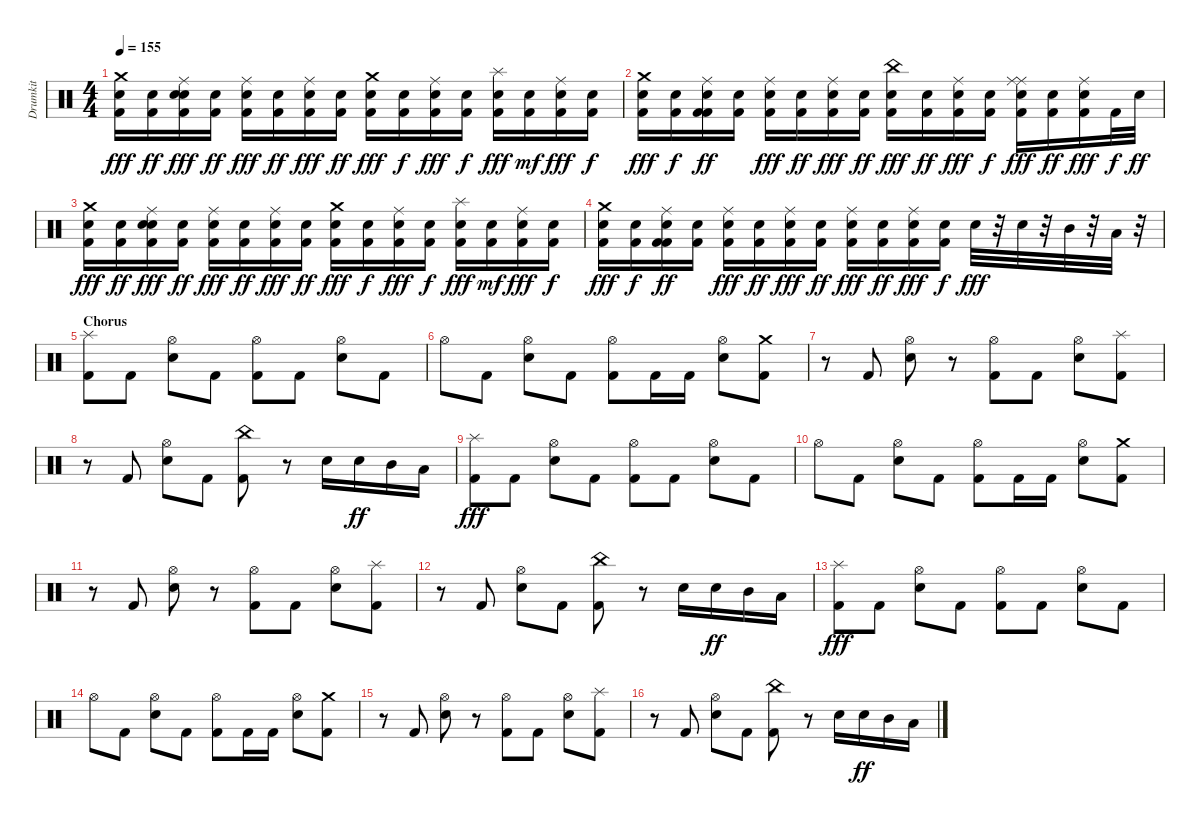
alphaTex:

\track ("Drumkit" "Drumkit") {instrument percussion}
\staff {score}
\articulation defaults
\ts (4 4)
\tempo 155
\clef neutral
\ks c
("Kick (hit) 2" "Snare (hit) 2" "Crash medium (hit)").16{dy fff} ("Kick (hit) 2" "Snare (hit) 2").16{dy ff} ("Kick (hit) 2" "Snare (hit) 2" "Snare (hit) 2" "Ride (middle)").16{dy fff} ("Kick (hit) 2" "Snare (hit) 2").16{dy ff} ("Kick (hit) 2" "Snare (hit) 2" "Ride (middle)").16{dy fff} ("Kick (hit) 2" "Snare (hit) 2").16{dy ff} ("Kick (hit) 2" "Snare (hit) 2" "Ride (middle)").16{dy fff} ("Kick (hit) 2" "Snare (hit) 2").16{dy ff} ("Kick (hit) 2" "Snare (hit) 2" "Crash medium (hit)").16{dy fff} ("Kick (hit) 2" "Snare (hit) 2").16{dy f} ("Kick (hit) 2" "Snare (hit) 2" "Ride (middle)").16{dy fff} ("Kick (hit) 2" "Snare (hit) 2").16{dy f} ("Kick (hit) 2" "Snare (hit) 2" "Splash (hit)").16{dy fff} ("Kick (hit) 2" "Snare (hit) 2").16{dy mf} ("Kick (hit) 2" "Snare (hit) 2" "Ride (middle)").16{dy fff} ("Kick (hit) 2" "Snare (hit) 2").16{dy f} |
("Kick (hit) 2" "Snare (hit) 2" "Crash medium (hit)").16{dy fff} ("Kick (hit) 2" "Snare (hit) 2").16{dy f} ("Kick (hit) 2" "Kick (hit) 2" "Snare (hit) 2" "Ride (middle)").16{dy ff} ("Kick (hit) 2" "Snare (hit) 2").16 ("Kick (hit) 2" "Snare (hit) 2" "Ride (middle)").16{dy fff} ("Kick (hit) 2" "Snare (hit) 2").16{dy ff} ("Kick (hit) 2" "Snare (hit) 2" "Ride (middle)").16{dy fff} ("Kick (hit) 2" "Snare (hit) 2").16{dy ff} ("Kick (hit) 2" "Snare (hit) 2" "China (hit)").16{dy fff} ("Kick (hit) 2" "Snare (hit) 2").16{dy ff} ("Kick (hit) 2" "Snare (hit) 2" "Ride (middle)").16{dy fff} ("Kick (hit) 2" "Snare (hit) 2").16{dy f} ("Kick (hit) 2" "Snare (hit) 2" "Ride (middle)" "Ride (middle)").16{dy fff} ("Kick (hit) 2" "Snare (hit) 2").16{dy ff} ("Kick (hit) 2" "Snare (hit) 2" "Ride (middle)").16{dy fff} "Kick (hit) 2".32{dy f} "Snare (hit) 2".32{dy ff} |
("Kick (hit) 2" "Snare (hit) 2" "Crash medium (hit)").16{dy fff} ("Kick (hit) 2" "Snare (hit) 2").16{dy ff} ("Kick (hit) 2" "Snare (hit) 2" "Snare (hit) 2" "Ride (middle)").16{dy fff} ("Kick (hit) 2" "Snare (hit) 2").16{dy ff} ("Kick (hit) 2" "Snare (hit) 2" "Ride (middle)").16{dy fff} ("Kick (hit) 2" "Snare (hit) 2").16{dy ff} ("Kick (hit) 2" "Snare (hit) 2" "Ride (middle)").16{dy fff} ("Kick (hit) 2" "Snare (hit) 2").16{dy ff} ("Kick (hit) 2" "Snare (hit) 2" "Crash medium (hit)").16{dy fff} ("Kick (hit) 2" "Snare (hit) 2").16{dy f} ("Kick (hit) 2" "Snare (hit) 2" "Ride (middle)").16{dy fff} ("Kick (hit) 2" "Snare (hit) 2").16{dy f} ("Kick (hit) 2" "Snare (hit) 2" "Splash (hit)").16{dy fff} ("Kick (hit) 2" "Snare (hit) 2").16{dy mf} ("Kick (hit) 2" "Snare (hit) 2" "Ride (middle)").16{dy fff} ("Kick (hit) 2" "Snare (hit) 2").16{dy f} |
("Kick (hit) 2" "Snare (hit) 2" "Crash medium (hit)").16{dy fff} ("Kick (hit) 2" "Snare (hit) 2").16{dy f} ("Kick (hit) 2" "Kick (hit) 2" "Snare (hit) 2" "Ride (middle)").16{dy ff} ("Kick (hit) 2" "Snare (hit) 2").16 ("Kick (hit) 2" "Snare (hit) 2" "Ride (middle)").16{dy fff} ("Kick (hit) 2" "Snare (hit) 2").16{dy ff} ("Kick (hit) 2" "Snare (hit) 2" "Ride (middle)").16{dy fff} ("Kick (hit) 2" "Snare (hit) 2").16{dy ff} ("Kick (hit) 2" "Snare (hit) 2" "Ride (middle)").16{dy fff} ("Kick (hit) 2" "Snare (hit) 2").16{dy ff} ("Kick (hit) 2" "Snare (hit) 2" "Ride (middle)").16{dy fff} ("Kick (hit) 2" "Snare (hit) 2").16{dy f} "Snare (hit) 2".32{dy fff} r.32 "Snare (hit) 2".32 r.32 "Mid Tom (hit)".32 r.32 "Low Tom (hit)".32 r.32 |
\section ("" "Chorus")
("Kick (hit) 2" "Splash (hit)").8 "Kick (hit) 2".8 ("Snare (hit) 2" "Hi-Hat (open)").8 "Kick (hit) 2".8 ("Kick (hit) 2" "Hi-Hat (open)").8 "Kick (hit) 2".8 ("Snare (hit) 2" "Hi-Hat (open)").8 "Kick (hit) 2".8 |
"Hi-Hat (open)".8 "Kick (hit) 2".8 ("Snare (hit) 2" "Hi-Hat (open)").8 "Kick (hit) 2".8 ("Kick (hit) 2" "Hi-Hat (open)").8 "Kick (hit) 2".16 "Kick (hit) 2".16 ("Snare (hit) 2" "Hi-Hat (open)").8 ("Kick (hit) 2" "Crash medium (hit)").8 |
r.8 "Kick (hit) 2".8 ("Snare (hit) 2" "Hi-Hat (open)").8 r.8 ("Kick (hit) 2" "Hi-Hat (open)").8 "Kick (hit) 2".8 ("Snare (hit) 2" "Hi-Hat (open)").8 ("Kick (hit) 2" "Splash (hit)").8 |
r.8 "Kick (hit) 2".8 ("Snare (hit) 2" "Hi-Hat (open)").8 "Kick (hit) 2".8 ("Kick (hit) 2" "China (hit)").8 r.8 "Snare (hit) 2".16 "Snare (hit) 2".16{dy ff} "Mid Tom (hit)".16 "Low Tom (hit)".16 |
("Kick (hit) 2" "Splash (hit)").8{dy fff} "Kick (hit) 2".8 ("Snare (hit) 2" "Hi-Hat (open)").8 "Kick (hit) 2".8 ("Kick (hit) 2" "Hi-Hat (open)").8 "Kick (hit) 2".8 ("Snare (hit) 2" "Hi-Hat (open)").8 "Kick (hit) 2".8 |
"Hi-Hat (open)".8 "Kick (hit) 2".8 ("Snare (hit) 2" "Hi-Hat (open)").8 "Kick (hit) 2".8 ("Kick (hit) 2" "Hi-Hat (open)").8 "Kick (hit) 2".16 "Kick (hit) 2".16 ("Snare (hit) 2" "Hi-Hat (open)").8 ("Kick (hit) 2" "Crash medium (hit)").8 |
r.8 "Kick (hit) 2".8 ("Snare (hit) 2" "Hi-Hat (open)").8 r.8 ("Kick (hit) 2" "Hi-Hat (open)").8 "Kick (hit) 2".8 ("Snare (hit) 2" "Hi-Hat (open)").8 ("Kick (hit) 2" "Splash (hit)").8 |
r.8 "Kick (hit) 2".8 ("Snare (hit) 2" "Hi-Hat (open)").8 "Kick (hit) 2".8 ("Kick (hit) 2" "China (hit)").8 r.8 "Snare (hit) 2".16 "Snare (hit) 2".16{dy ff} "Mid Tom (hit)".16 "Low Tom (hit)".16 |
("Kick (hit) 2" "Splash (hit)").8{dy fff} "Kick (hit) 2".8 ("Snare (hit) 2" "Hi-Hat (open)").8 "Kick (hit) 2".8 ("Kick (hit) 2" "Hi-Hat (open)").8 "Kick (hit) 2".8 ("Snare (hit) 2" "Hi-Hat (open)").8 "Kick (hit) 2".8 |
"Hi-Hat (open)".8 "Kick (hit) 2".8 ("Snare (hit) 2" "Hi-Hat (open)").8 "Kick (hit) 2".8 ("Kick (hit) 2" "Hi-Hat (open)").8 "Kick (hit) 2".16 "Kick (hit) 2".16 ("Snare (hit) 2" "Hi-Hat (open)").8 ("Kick (hit) 2" "Crash medium (hit)").8 |
r.8 "Kick (hit) 2".8 ("Snare (hit) 2" "Hi-Hat (open)").8 r.8 ("Kick (hit) 2" "Hi-Hat (open)").8 "Kick (hit) 2".8 ("Snare (hit) 2" "Hi-Hat (open)").8 ("Kick (hit) 2" "Splash (hit)").8 |
r.8 "Kick (hit) 2".8 ("Snare (hit) 2" "Hi-Hat (open)").8 "Kick (hit) 2".8 ("Kick (hit) 2" "China (hit)").8 r.8 "Snare (hit) 2".16 "Snare (hit) 2".16{dy ff} "Mid Tom (hit)".16 "Low Tom (hit)".16
